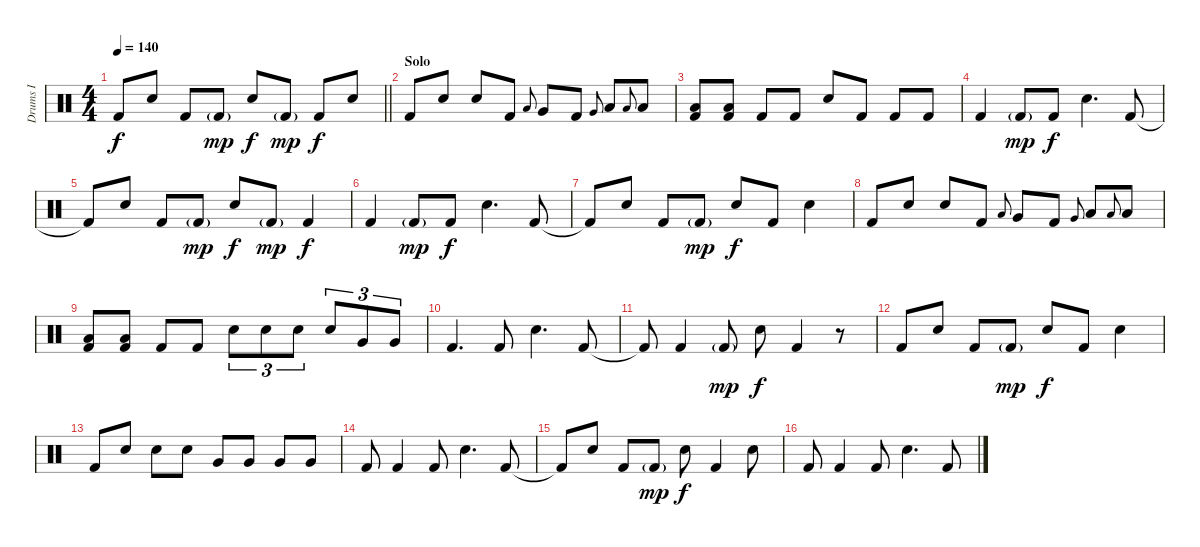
\track ("Drums I" "Drums I") {instrument percussion}
\staff {score}
\articulation defaults
\ts (4 4)
\tempo 140
\clef neutral
\barLineRight lightlight
\ks c "Kick (hit) 2"{t}.8{dy f} "Electric Snare (hit)".8 "Kick (hit) 2".8 "Kick (hit) 2"{g}.8{dy mp} "Electric Snare (hit)".8{dy f} "Kick (hit) 2"{g}.8{dy mp} "Kick (hit) 2".8{dy f} "Electric Snare (hit)".8
|
\section ("" "Solo")
"Kick (hit) 2".8 "Electric Snare (hit)".8 "Electric Snare (hit)".8 "Kick (hit) 2".8 "Low Tom (hit)".8{gr onbeat} "Very Low Tom (hit)".8 "Kick (hit) 2".8 "Very Low Tom (hit)".8{gr onbeat} "Low Floor Tom (hit)".8 "Low Floor Tom (hit)".8{gr onbeat} "Low Floor Tom (hit)".8 |
("Low Floor Tom (hit)" "Kick (hit) 2").8 ("Low Floor Tom (hit)" "Kick (hit) 2").8 "Kick (hit) 2".8 "Kick (hit) 2".8 "Electric Snare (hit)".8 "Kick (hit) 2".8 "Kick (hit) 2".8 "Kick (hit) 2".8 |
"Kick (hit) 2".4 "Kick (hit) 2"{g}.8{dy mp} "Kick (hit) 2".8{dy f} "Electric Snare (hit)".4{d} "Kick (hit) 2".8 |
"Kick (hit) 2"{t}.8 "Electric Snare (hit)".8 "Kick (hit) 2".8 "Kick (hit) 2"{g}.8{dy mp} "Electric Snare (hit)".8{dy f} "Kick (hit) 2"{g}.8{dy mp} "Kick (hit) 2".4{dy f} |
"Kick (hit) 2".4 "Kick (hit) 2"{g}.8{dy mp} "Kick (hit) 2".8{dy f} "Electric Snare (hit)".4{d} "Kick (hit) 2".8 |
"Kick (hit) 2"{t}.8 "Electric Snare (hit)".8 "Kick (hit) 2".8 "Kick (hit) 2"{g}.8{dy mp} "Electric Snare (hit)".8{dy f} "Kick (hit) 2".8 "Electric Snare (hit)".4 |
"Kick (hit) 2".8 "Electric Snare (hit)".8 "Electric Snare (hit)".8 "Kick (hit) 2".8 "Low Tom (hit)".8{gr onbeat} "Very Low Tom (hit)".8 "Kick (hit) 2".8 "Very Low Tom (hit)".8{gr onbeat} "Low Floor Tom (hit)".8 "Low Floor Tom (hit)".8{gr onbeat} "Low Floor Tom (hit)".8 |
("Low Floor Tom (hit)" "Kick (hit) 2").8 ("Low Floor Tom (hit)" "Kick (hit) 2").8 "Kick (hit) 2".8 "Kick (hit) 2".8 "Electric Snare (hit)".8{tu (3 2)} "Electric Snare (hit)".8{tu (3 2)} "Electric Snare (hit)".8{tu (3 2)} "Electric Snare (hit)".8{tu (3 2)} "Very Low Tom (hit)".8{tu (3 2)} "Very Low Tom (hit)".8{tu (3 2)} |
"Kick (hit) 2".4{d} "Kick (hit) 2".8 "Electric Snare (hit)".4{d} "Kick (hit) 2".8 |
"Kick (hit) 2"{t}.8 "Kick (hit) 2".4 "Kick (hit) 2"{g}.8{dy mp} "Electric Snare (hit)".8{dy f} "Kick (hit) 2".4 r.8 |
"Kick (hit) 2".8 "Electric Snare (hit)".8 "Kick (hit) 2".8 "Kick (hit) 2"{g}.8{dy mp} "Electric Snare (hit)".8{dy f} "Kick (hit) 2".8 "Electric Snare (hit)".4 |
"Kick (hit) 2".8 "Electric Snare (hit)".8 "Electric Snare (hit)".8 "Electric Snare (hit)".8 "Very Low Tom (hit)".8 "Very Low Tom (hit)".8 "Very Low Tom (hit)".8 "Very Low Tom (hit)".8 |
"Kick (hit) 2".8 "Kick (hit) 2".4 "Kick (hit) 2".8 "Electric Snare (hit)".4{d} "Kick (hit) 2".8 |
"Kick (hit) 2"{t}.8 "Electric Snare (hit)".8 "Kick (hit) 2".8 "Kick (hit) 2"{g}.8{dy mp} "Electric Snare (hit)".8{dy f} "Kick (hit) 2".4 "Electric Snare (hit)".8 |
"Kick (hit) 2".8 "Kick (hit) 2".4 "Kick (hit) 2".8 "Electric Snare (hit)".4{d} "Kick (hit) 2".8
